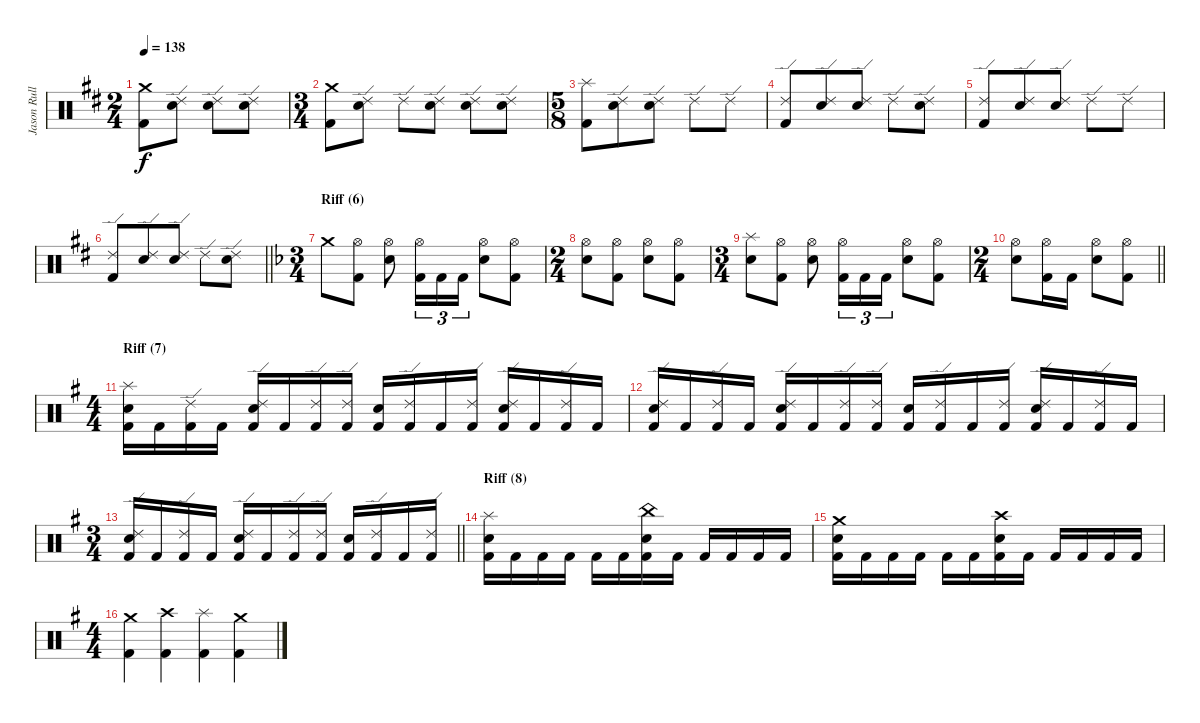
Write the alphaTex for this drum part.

\track ("Jason Rullo (drums)" "Jason Rull") {instrument percussion}
\staff {score}
\articulation defaults
\ts (2 4)
\tempo 138
\clef neutral
\ks bminor
("Crash medium (hit)" "Kick (hit) 2").8{dy f} ("Ride (edge) 2" "Electric Snare (hit)").8 ("Ride (edge) 2" "Electric Snare (hit)").8 ("Ride (edge) 2" "Electric Snare (hit)").8 |
\ts (3 4)
("Crash medium (hit)" "Kick (hit) 2").8 ("Ride (edge) 2" "Electric Snare (hit)").8 "Ride (edge) 2".8 ("Ride (edge) 2" "Electric Snare (hit)").8 ("Ride (edge) 2" "Electric Snare (hit)").8 ("Ride (edge) 2" "Electric Snare (hit)").8 |
\ts (5 8)
("Splash (hit)" "Kick (hit) 2").8 ("Ride (edge) 2" "Electric Snare (hit)").8 ("Ride (edge) 2" "Electric Snare (hit)").8 "Ride (edge) 2".8 "Ride (edge) 2".8 |
("Kick (hit) 2" "Ride (edge) 2").8 ("Electric Snare (hit)" "Ride (edge) 2").8 ("Electric Snare (hit)" "Ride (edge) 2").8 "Ride (edge) 2".8 ("Electric Snare (hit)" "Ride (edge) 2").8 |
("Ride (edge) 2" "Kick (hit) 2").8 ("Ride (edge) 2" "Electric Snare (hit)").8 ("Ride (edge) 2" "Electric Snare (hit)").8 "Ride (edge) 2".8 "Ride (edge) 2".8 |
\barLineRight lightlight
("Kick (hit) 2" "Ride (edge) 2").8 ("Electric Snare (hit)" "Ride (edge) 2").8 ("Electric Snare (hit)" "Ride (edge) 2").8 "Ride (edge) 2".8 ("Electric Snare (hit)" "Ride (edge) 2").8 |
\ts (3 4)
\section ("" "Riff (6)")
\ks dminor "Crash medium (hit)".8
("Kick (hit) 2" "Hi-Hat (open)").8 ("Electric Snare (hit)" "Hi-Hat (open)").8 ("Kick (hit) 2" "Hi-Hat (open)").16{tu (3 2)} "Kick (hit) 2".16{tu (3 2)} "Kick (hit) 2".16{tu (3 2)} ("Electric Snare (hit)" "Hi-Hat (open)").8 ("Kick (hit) 2" "Hi-Hat (open)").8 |
\ts (2 4)
("Electric Snare (hit)" "Hi-Hat (open)").8 ("Kick (hit) 2" "Hi-Hat (open)").8 ("Electric Snare (hit)" "Hi-Hat (open)").8 ("Kick (hit) 2" "Hi-Hat (open)").8 |
\ts (3 4)
("Splash (hit)" "Electric Snare (hit)").8 ("Kick (hit) 2" "Hi-Hat (open)").8 ("Electric Snare (hit)" "Hi-Hat (open)").8 ("Kick (hit) 2" "Hi-Hat (open)").16{tu (3 2)} "Kick (hit) 2".16{tu (3 2)} "Kick (hit) 2".16{tu (3 2)} ("Electric Snare (hit)" "Hi-Hat (open)").8 ("Kick (hit) 2" "Hi-Hat (open)").8 |
\ts (2 4)
\barLineRight lightlight
("Electric Snare (hit)" "Hi-Hat (open)").8 ("Kick (hit) 2" "Hi-Hat (open)").16 "Kick (hit) 2".16 ("Electric Snare (hit)" "Hi-Hat (open)").8 ("Kick (hit) 2" "Hi-Hat (open)").8 |
\ts (4 4)
\section ("" "Riff (7)")
\ks eminor
("Splash (hit)" "Kick (hit) 2" "Electric Snare (hit)").16 "Kick (hit) 2".16 ("Ride (edge) 2" "Kick (hit) 2").16 "Kick (hit) 2".16 ("Ride (edge) 2" "Electric Snare (hit)" "Kick (hit) 2").16 "Kick (hit) 2".16 ("Ride (edge) 2" "Kick (hit) 2").16 ("Ride (edge) 2" "Kick (hit) 2").16 ("Electric Snare (hit)" "Kick (hit) 2").16 ("Ride (edge) 2" "Kick (hit) 2").16 "Kick (hit) 2".16 ("Ride (edge) 2" "Kick (hit) 2").16 ("Ride (edge) 2" "Electric Snare (hit)" "Kick (hit) 2").16 "Kick (hit) 2".16 ("Ride (edge) 2" "Kick (hit) 2").16 "Kick (hit) 2".16 |
("Ride (edge) 2" "Kick (hit) 2" "Electric Snare (hit)").16 "Kick (hit) 2".16 ("Ride (edge) 2" "Kick (hit) 2").16 "Kick (hit) 2".16 ("Ride (edge) 2" "Electric Snare (hit)" "Kick (hit) 2").16 "Kick (hit) 2".16 ("Ride (edge) 2" "Kick (hit) 2").16 ("Ride (edge) 2" "Kick (hit) 2").16 ("Electric Snare (hit)" "Kick (hit) 2").16 ("Ride (edge) 2" "Kick (hit) 2").16 "Kick (hit) 2".16 ("Ride (edge) 2" "Kick (hit) 2").16 ("Ride (edge) 2" "Electric Snare (hit)" "Kick (hit) 2").16 "Kick (hit) 2".16 ("Ride (edge) 2" "Kick (hit) 2").16 "Kick (hit) 2".16 |
\ts (3 4)
\barLineRight lightlight
("Ride (edge) 2" "Kick (hit) 2" "Electric Snare (hit)").16 "Kick (hit) 2".16 ("Ride (edge) 2" "Kick (hit) 2").16 "Kick (hit) 2".16 ("Ride (edge) 2" "Electric Snare (hit)" "Kick (hit) 2").16 "Kick (hit) 2".16 ("Ride (edge) 2" "Kick (hit) 2").16 ("Ride (edge) 2" "Kick (hit) 2").16 ("Electric Snare (hit)" "Kick (hit) 2").16 ("Ride (edge) 2" "Kick (hit) 2").16 "Kick (hit) 2".16 ("Ride (edge) 2" "Kick (hit) 2").16 |
\section ("" "Riff (8)")
("Splash (hit)" "Electric Snare (hit)" "Kick (hit) 2").16 "Kick (hit) 2".16 "Kick (hit) 2".16 "Kick (hit) 2".16 "Kick (hit) 2".16 "Kick (hit) 2".16 ("China (hit)" "Kick (hit) 2" "Electric Snare (hit)").16 "Kick (hit) 2".16 "Kick (hit) 2".16 "Kick (hit) 2".16 "Kick (hit) 2".16 "Kick (hit) 2".16 |
("Crash medium (hit)" "Electric Snare (hit)" "Kick (hit) 2").16 "Kick (hit) 2".16 "Kick (hit) 2".16 "Kick (hit) 2".16 "Kick (hit) 2".16 "Kick (hit) 2".16 ("Crash high (hit)" "Electric Snare (hit)" "Kick (hit) 2").16 "Kick (hit) 2".16 "Kick (hit) 2".16 "Kick (hit) 2".16 "Kick (hit) 2".16 "Kick (hit) 2".16 |
\ts (4 4)
("Crash medium (hit)" "Kick (hit) 2").4 ("Crash high (hit)" "Kick (hit) 2").4 ("Splash (hit)" "Kick (hit) 2").4 ("Crash medium (hit)" "Kick (hit) 2").4
